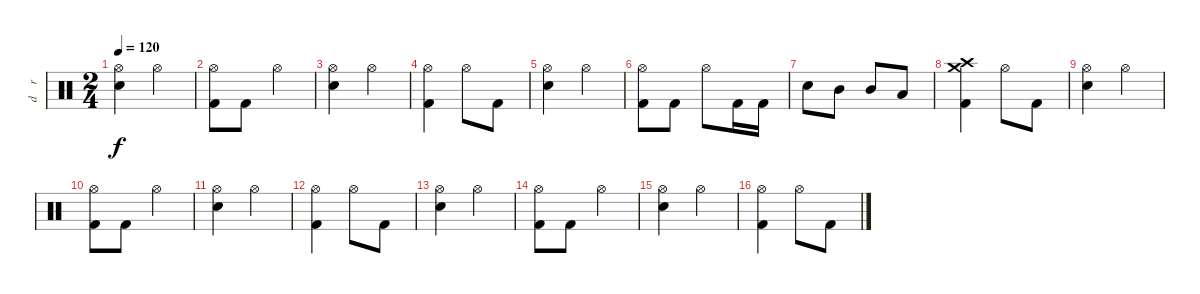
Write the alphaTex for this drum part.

\track ("d    r    u  m  s" "d    r    ") {instrument percussion}
\staff {score}
\articulation defaults
\ts (2 4)
\tempo 120
\clef neutral
\ks c
("Hi-Hat (open)" "Snare (hit) 2").4{dy f} "Hi-Hat (open)".4 |
("Hi-Hat (open)" "Kick (hit) 2").8 "Kick (hit) 2".8 "Hi-Hat (open)".4 |
("Hi-Hat (open)" "Snare (hit) 2").4 "Hi-Hat (open)".4 |
("Hi-Hat (open)" "Kick (hit) 2").4 "Hi-Hat (open)".8 "Kick (hit) 2".8 |
("Hi-Hat (open)" "Snare (hit) 2").4 "Hi-Hat (open)".4 |
("Hi-Hat (open)" "Kick (hit) 2").8 "Kick (hit) 2".8 "Hi-Hat (open)".8 "Kick (hit) 2".16 "Kick (hit) 2".16 |
"Snare (hit) 2".8 "Mid Tom (hit)".8 "Mid Tom (hit)".8 "Low Tom (hit)".8 |
("Crash high (hit)" "Crash medium (hit)" "Kick (hit) 2").4 "Hi-Hat (open)".8 "Kick (hit) 2".8 |
("Hi-Hat (open)" "Snare (hit) 2").4 "Hi-Hat (open)".4 |
("Hi-Hat (open)" "Kick (hit) 2").8 "Kick (hit) 2".8 "Hi-Hat (open)".4 |
("Hi-Hat (open)" "Snare (hit) 2").4 "Hi-Hat (open)".4 |
("Hi-Hat (open)" "Kick (hit) 2").4 "Hi-Hat (open)".8 "Kick (hit) 2".8 |
("Hi-Hat (open)" "Snare (hit) 2").4 "Hi-Hat (open)".4 |
("Hi-Hat (open)" "Kick (hit) 2").8 "Kick (hit) 2".8 "Hi-Hat (open)".4 |
("Hi-Hat (open)" "Snare (hit) 2").4 "Hi-Hat (open)".4 |
("Hi-Hat (open)" "Kick (hit) 2").4 "Hi-Hat (open)".8 "Kick (hit) 2".8
